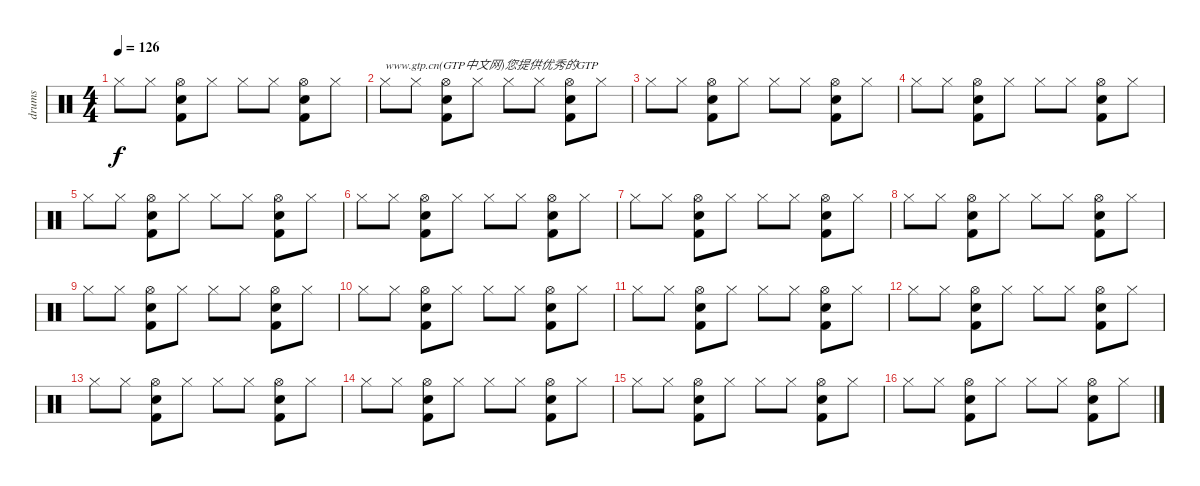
\track ("drums" "drums") {instrument percussion}
\staff {score}
\articulation defaults
\ts (4 4)
\tempo 126
\clef neutral
\ks c "Hi-Hat (closed)".8{dy f} "Hi-Hat (closed)".8
("Snare (hit) 2" "Hi-Hat (open)" "Kick (hit) 2").8 "Hi-Hat (closed)".8 "Hi-Hat (closed)".8 "Hi-Hat (closed)".8 ("Snare (hit) 2" "Hi-Hat (open)" "Kick (hit) 2").8 "Hi-Hat (closed)".8 |
"Hi-Hat (closed)".8{txt "www.gtp.cn(GTP中文网)您提供优秀的GTP"} "Hi-Hat (closed)".8 ("Snare (hit) 2" "Hi-Hat (open)" "Kick (hit) 2").8 "Hi-Hat (closed)".8 "Hi-Hat (closed)".8 "Hi-Hat (closed)".8 ("Snare (hit) 2" "Hi-Hat (open)" "Kick (hit) 2").8 "Hi-Hat (closed)".8 |
"Hi-Hat (closed)".8 "Hi-Hat (closed)".8 ("Snare (hit) 2" "Hi-Hat (open)" "Kick (hit) 2").8 "Hi-Hat (closed)".8 "Hi-Hat (closed)".8 "Hi-Hat (closed)".8 ("Snare (hit) 2" "Hi-Hat (open)" "Kick (hit) 2").8 "Hi-Hat (closed)".8 |
"Hi-Hat (closed)".8 "Hi-Hat (closed)".8 ("Snare (hit) 2" "Hi-Hat (open)" "Kick (hit) 2").8 "Hi-Hat (closed)".8 "Hi-Hat (closed)".8 "Hi-Hat (closed)".8 ("Snare (hit) 2" "Hi-Hat (open)" "Kick (hit) 2").8 "Hi-Hat (closed)".8 |
"Hi-Hat (closed)".8 "Hi-Hat (closed)".8 ("Snare (hit) 2" "Hi-Hat (open)" "Kick (hit) 2").8 "Hi-Hat (closed)".8 "Hi-Hat (closed)".8 "Hi-Hat (closed)".8 ("Snare (hit) 2" "Hi-Hat (open)" "Kick (hit) 2").8 "Hi-Hat (closed)".8 |
"Hi-Hat (closed)".8 "Hi-Hat (closed)".8 ("Snare (hit) 2" "Hi-Hat (open)" "Kick (hit) 2").8 "Hi-Hat (closed)".8 "Hi-Hat (closed)".8 "Hi-Hat (closed)".8 ("Snare (hit) 2" "Hi-Hat (open)" "Kick (hit) 2").8 "Hi-Hat (closed)".8 |
"Hi-Hat (closed)".8 "Hi-Hat (closed)".8 ("Snare (hit) 2" "Hi-Hat (open)" "Kick (hit) 2").8 "Hi-Hat (closed)".8 "Hi-Hat (closed)".8 "Hi-Hat (closed)".8 ("Snare (hit) 2" "Hi-Hat (open)" "Kick (hit) 2").8 "Hi-Hat (closed)".8 |
"Hi-Hat (closed)".8 "Hi-Hat (closed)".8 ("Snare (hit) 2" "Hi-Hat (open)" "Kick (hit) 2").8 "Hi-Hat (closed)".8 "Hi-Hat (closed)".8 "Hi-Hat (closed)".8 ("Snare (hit) 2" "Hi-Hat (open)" "Kick (hit) 2").8 "Hi-Hat (closed)".8 |
"Hi-Hat (closed)".8 "Hi-Hat (closed)".8 ("Snare (hit) 2" "Hi-Hat (open)" "Kick (hit) 2").8 "Hi-Hat (closed)".8 "Hi-Hat (closed)".8 "Hi-Hat (closed)".8 ("Snare (hit) 2" "Hi-Hat (open)" "Kick (hit) 2").8 "Hi-Hat (closed)".8 |
"Hi-Hat (closed)".8 "Hi-Hat (closed)".8 ("Snare (hit) 2" "Hi-Hat (open)" "Kick (hit) 2").8 "Hi-Hat (closed)".8 "Hi-Hat (closed)".8 "Hi-Hat (closed)".8 ("Snare (hit) 2" "Hi-Hat (open)" "Kick (hit) 2").8 "Hi-Hat (closed)".8 |
"Hi-Hat (closed)".8 "Hi-Hat (closed)".8 ("Snare (hit) 2" "Hi-Hat (open)" "Kick (hit) 2").8 "Hi-Hat (closed)".8 "Hi-Hat (closed)".8 "Hi-Hat (closed)".8 ("Snare (hit) 2" "Hi-Hat (open)" "Kick (hit) 2").8 "Hi-Hat (closed)".8 |
"Hi-Hat (closed)".8 "Hi-Hat (closed)".8 ("Snare (hit) 2" "Hi-Hat (open)" "Kick (hit) 2").8 "Hi-Hat (closed)".8 "Hi-Hat (closed)".8 "Hi-Hat (closed)".8 ("Snare (hit) 2" "Hi-Hat (open)" "Kick (hit) 2").8 "Hi-Hat (closed)".8 |
"Hi-Hat (closed)".8 "Hi-Hat (closed)".8 ("Snare (hit) 2" "Hi-Hat (open)" "Kick (hit) 2").8 "Hi-Hat (closed)".8 "Hi-Hat (closed)".8 "Hi-Hat (closed)".8 ("Snare (hit) 2" "Hi-Hat (open)" "Kick (hit) 2").8 "Hi-Hat (closed)".8 |
"Hi-Hat (closed)".8 "Hi-Hat (closed)".8 ("Snare (hit) 2" "Hi-Hat (open)" "Kick (hit) 2").8 "Hi-Hat (closed)".8 "Hi-Hat (closed)".8 "Hi-Hat (closed)".8 ("Snare (hit) 2" "Hi-Hat (open)" "Kick (hit) 2").8 "Hi-Hat (closed)".8 |
"Hi-Hat (closed)".8 "Hi-Hat (closed)".8 ("Snare (hit) 2" "Hi-Hat (open)" "Kick (hit) 2").8 "Hi-Hat (closed)".8 "Hi-Hat (closed)".8 "Hi-Hat (closed)".8 ("Snare (hit) 2" "Hi-Hat (open)" "Kick (hit) 2").8 "Hi-Hat (closed)".8 |
"Hi-Hat (closed)".8 "Hi-Hat (closed)".8 ("Snare (hit) 2" "Hi-Hat (open)" "Kick (hit) 2").8 "Hi-Hat (closed)".8 "Hi-Hat (closed)".8 "Hi-Hat (closed)".8 ("Snare (hit) 2" "Hi-Hat (open)" "Kick (hit) 2").8 "Hi-Hat (closed)".8
